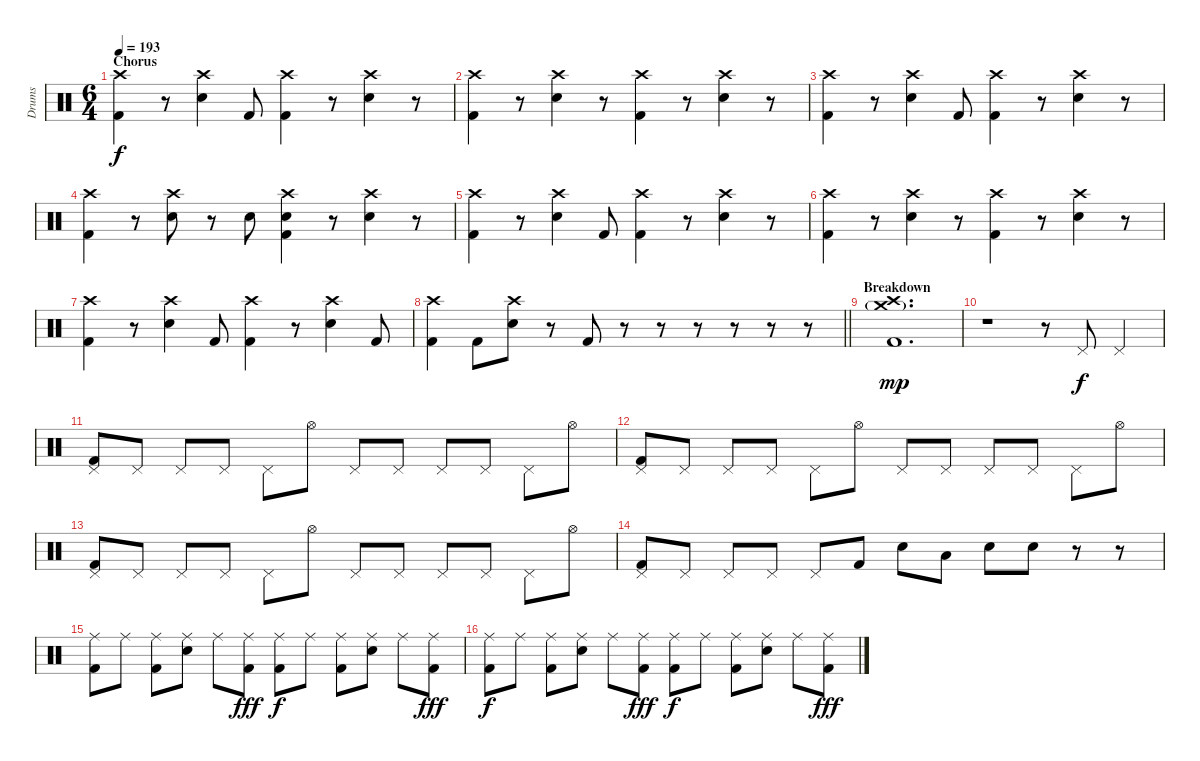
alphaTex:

\track ("Drums" "Drums") {instrument percussion}
\staff {score}
\articulation defaults
\ts (6 4)
\section ("" "Chorus")
\tempo 193
\clef neutral
\ks c
("Crash high (hit)" "Kick (hit) 2").4{dy f} r.8 ("Crash high (hit)" "Electric Snare (hit)").4 "Kick (hit) 2".8 ("Crash high (hit)" "Kick (hit) 2").4 r.8 ("Crash high (hit)" "Electric Snare (hit)").4 r.8 |
("Crash high (hit)" "Kick (hit) 2").4 r.8 ("Crash high (hit)" "Electric Snare (hit)").4 r.8 ("Crash high (hit)" "Kick (hit) 2").4 r.8 ("Crash high (hit)" "Electric Snare (hit)").4 r.8 |
("Crash high (hit)" "Kick (hit) 2").4 r.8 ("Crash high (hit)" "Electric Snare (hit)").4 "Kick (hit) 2".8 ("Crash high (hit)" "Kick (hit) 2").4 r.8 ("Crash high (hit)" "Electric Snare (hit)").4 r.8 |
("Crash high (hit)" "Kick (hit) 2").4 r.8 ("Crash high (hit)" "Electric Snare (hit)").8 r.8 "Electric Snare (hit)".8 ("Crash high (hit)" "Electric Snare (hit)" "Kick (hit) 2").4 r.8 ("Crash high (hit)" "Electric Snare (hit)").4 r.8 |
("Crash high (hit)" "Kick (hit) 2").4 r.8 ("Crash high (hit)" "Electric Snare (hit)").4 "Kick (hit) 2".8 ("Crash high (hit)" "Kick (hit) 2").4 r.8 ("Crash high (hit)" "Electric Snare (hit)").4 r.8 |
("Crash high (hit)" "Kick (hit) 2").4 r.8 ("Crash high (hit)" "Electric Snare (hit)").4 r.8 ("Crash high (hit)" "Kick (hit) 2").4 r.8 ("Crash high (hit)" "Electric Snare (hit)").4 r.8 |
("Crash high (hit)" "Kick (hit) 2").4 r.8 ("Crash high (hit)" "Electric Snare (hit)").4 "Kick (hit) 2".8 ("Crash high (hit)" "Kick (hit) 2").4 r.8 ("Crash high (hit)" "Electric Snare (hit)").4 "Kick (hit) 2".8 |
\barLineRight lightlight
("Crash high (hit)" "Kick (hit) 2").4 "Kick (hit) 2".8 ("Crash high (hit)" "Electric Snare (hit)").8 r.8 "Kick (hit) 2".8 r.8 r.8 r.8 r.8 r.8 r.8 |
\section ("" "Breakdown")
("Crash high (hit)" "Crash medium (hit)"{g} "Kick (hit) 2").1{d dy mp} |
r.1 r.8 "Pedal Hi-Hat (hit)".8{dy f} "Pedal Hi-Hat (hit)".4 |
("Pedal Hi-Hat (hit)" "Kick (hit) 2").8 "Pedal Hi-Hat (hit)".8 "Pedal Hi-Hat (hit)".8 "Pedal Hi-Hat (hit)".8 "Pedal Hi-Hat (hit)".8 "Hi-Hat (open)".8 "Pedal Hi-Hat (hit)".8 "Pedal Hi-Hat (hit)".8 "Pedal Hi-Hat (hit)".8 "Pedal Hi-Hat (hit)".8 "Pedal Hi-Hat (hit)".8 "Hi-Hat (open)".8 |
("Pedal Hi-Hat (hit)" "Kick (hit) 2").8 "Pedal Hi-Hat (hit)".8 "Pedal Hi-Hat (hit)".8 "Pedal Hi-Hat (hit)".8 "Pedal Hi-Hat (hit)".8 "Hi-Hat (open)".8 "Pedal Hi-Hat (hit)".8 "Pedal Hi-Hat (hit)".8 "Pedal Hi-Hat (hit)".8 "Pedal Hi-Hat (hit)".8 "Pedal Hi-Hat (hit)".8 "Hi-Hat (open)".8 |
("Pedal Hi-Hat (hit)" "Kick (hit) 2").8 "Pedal Hi-Hat (hit)".8 "Pedal Hi-Hat (hit)".8 "Pedal Hi-Hat (hit)".8 "Pedal Hi-Hat (hit)".8 "Hi-Hat (open)".8 "Pedal Hi-Hat (hit)".8 "Pedal Hi-Hat (hit)".8 "Pedal Hi-Hat (hit)".8 "Pedal Hi-Hat (hit)".8 "Pedal Hi-Hat (hit)".8 "Hi-Hat (open)".8 |
("Pedal Hi-Hat (hit)" "Kick (hit) 2").8 "Pedal Hi-Hat (hit)".8 "Pedal Hi-Hat (hit)".8 "Pedal Hi-Hat (hit)".8 "Pedal Hi-Hat (hit)".8 "Kick (hit) 2".8 "Electric Snare (hit)".8 "Low Floor Tom (hit)".8 "Electric Snare (hit)".8 "Electric Snare (hit)".8 r.8 r.8 |
("Ride (middle)" "Kick (hit) 2").8 "Ride (middle)".8 ("Ride (middle)" "Kick (hit) 2").8 ("Ride (middle)" "Electric Snare (hit)").8 "Ride (middle)".8 ("Ride (middle)" "Kick (hit) 2").8{dy fff} ("Ride (middle)" "Kick (hit) 2").8{dy f} "Ride (middle)".8 ("Ride (middle)" "Kick (hit) 2").8 ("Ride (middle)" "Electric Snare (hit)").8 "Ride (middle)".8 ("Ride (middle)" "Kick (hit) 2").8{dy fff} |
("Ride (middle)" "Kick (hit) 2").8{dy f} "Ride (middle)".8 ("Ride (middle)" "Kick (hit) 2").8 ("Ride (middle)" "Electric Snare (hit)").8 "Ride (middle)".8 ("Ride (middle)" "Kick (hit) 2").8{dy fff} ("Ride (middle)" "Kick (hit) 2").8{dy f} "Ride (middle)".8 ("Ride (middle)" "Kick (hit) 2").8 ("Ride (middle)" "Electric Snare (hit)").8 "Ride (middle)".8 ("Ride (middle)" "Kick (hit) 2").8{dy fff}
